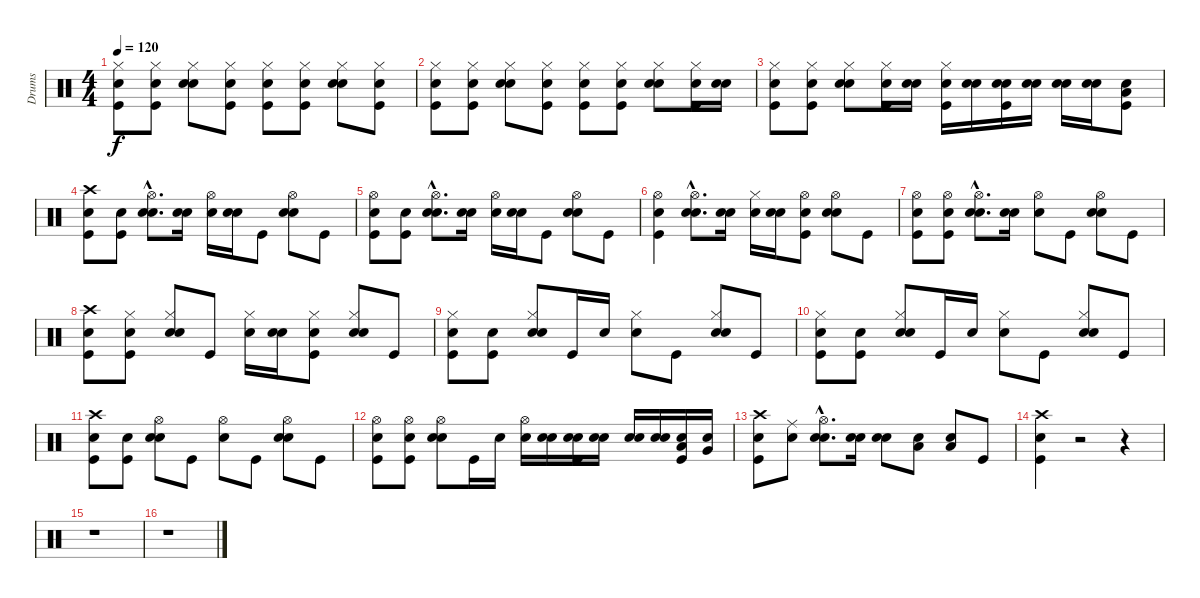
\track ("Drums" "Drums") {instrument percussion}
\staff {score}
\articulation defaults
\ts (4 4)
\tempo 120
\clef neutral
\ks c
("Snare (hit)" "Kick (hit)" "Hi-Hat (closed)").8{dy f} ("Snare (hit)" "Kick (hit)" "Hi-Hat (closed)").8 ("Snare (hit)" "Electric Snare (hit)" "Hi-Hat (closed)").8 ("Snare (hit)" "Kick (hit)" "Hi-Hat (closed)").8 ("Snare (hit)" "Kick (hit)" "Hi-Hat (closed)").8 ("Snare (hit)" "Kick (hit)" "Hi-Hat (closed)").8 ("Snare (hit)" "Electric Snare (hit)" "Hi-Hat (closed)").8 ("Snare (hit)" "Kick (hit)" "Hi-Hat (closed)").8 |
("Snare (hit)" "Kick (hit)" "Hi-Hat (closed)").8 ("Snare (hit)" "Kick (hit)" "Hi-Hat (closed)").8 ("Snare (hit)" "Electric Snare (hit)" "Hi-Hat (closed)").8 ("Snare (hit)" "Kick (hit)" "Hi-Hat (closed)").8 ("Snare (hit)" "Kick (hit)" "Hi-Hat (closed)").8 ("Snare (hit)" "Kick (hit)" "Hi-Hat (closed)").8 ("Snare (hit)" "Electric Snare (hit)" "Hi-Hat (closed)").8 ("Snare (hit)" "Kick (hit)" "Hi-Hat (closed)").16 ("Snare (hit)" "Electric Snare (hit)").16 |
("Snare (hit)" "Kick (hit)" "Hi-Hat (closed)").8 ("Snare (hit)" "Kick (hit)" "Hi-Hat (closed)").8 ("Snare (hit)" "Electric Snare (hit)" "Hi-Hat (closed)").8 ("Snare (hit)" "Kick (hit)" "Hi-Hat (closed)").16 ("Snare (hit)" "Electric Snare (hit)").16 ("Snare (hit)" "Kick (hit)" "Hi-Hat (closed)").16 ("Snare (hit)" "Electric Snare (hit)").16 ("Snare (hit)" "Kick (hit)" "Electric Snare (hit)").16 ("Snare (hit)" "Electric Snare (hit)").16 ("Snare (hit)" "Electric Snare (hit)").16 ("Snare (hit)" "Electric Snare (hit)").16 ("Snare (hit)" "Kick (hit)" "Low Tom (hit)").8 |
("Snare (hit)" "Kick (hit)" "Crash high (hit)").8 ("Snare (hit)" "Kick (hit)").8 ("Snare (hit)"{hac} "Electric Snare (hit)"{hac} "Hi-Hat (open)"{hac}).8{d} ("Snare (hit)" "Electric Snare (hit)").16 ("Snare (hit)" "Hi-Hat (open)").16 ("Snare (hit)" "Electric Snare (hit)").16 "Kick (hit)".8 ("Snare (hit)" "Electric Snare (hit)" "Hi-Hat (open)").8 "Kick (hit)".8 |
("Snare (hit)" "Hi-Hat (open)" "Kick (hit)").8 ("Snare (hit)" "Kick (hit)").8 ("Snare (hit)"{hac} "Electric Snare (hit)"{hac} "Hi-Hat (open)"{hac}).8{d} ("Snare (hit)" "Electric Snare (hit)").16 ("Snare (hit)" "Hi-Hat (open)").16 ("Snare (hit)" "Electric Snare (hit)").16 "Kick (hit)".8 ("Snare (hit)" "Electric Snare (hit)" "Hi-Hat (open)").8 "Kick (hit)".8 |
("Snare (hit)" "Hi-Hat (open)" "Kick (hit)").4 ("Snare (hit)"{hac} "Electric Snare (hit)"{hac} "Hi-Hat (open)"{hac}).8{d} ("Snare (hit)" "Electric Snare (hit)").16 ("Snare (hit)" "Hi-Hat (closed)").16 ("Snare (hit)" "Electric Snare (hit)").16 ("Snare (hit)" "Hi-Hat (open)" "Kick (hit)").8 ("Snare (hit)" "Electric Snare (hit)" "Hi-Hat (open)").8 "Kick (hit)".8 |
("Snare (hit)" "Hi-Hat (open)" "Kick (hit)").8 ("Snare (hit)" "Hi-Hat (open)" "Kick (hit)").8 ("Snare (hit)"{hac} "Electric Snare (hit)"{hac} "Hi-Hat (open)"{hac}).8{d} ("Snare (hit)" "Electric Snare (hit)").16 ("Snare (hit)" "Hi-Hat (open)").8 "Kick (hit)".8 ("Snare (hit)" "Electric Snare (hit)" "Hi-Hat (open)").8 "Kick (hit)".8 |
("Snare (hit)" "Crash high (hit)" "Kick (hit)").8 ("Snare (hit)" "Hi-Hat (closed)" "Kick (hit)").8 ("Snare (hit)" "Electric Snare (hit)" "Hi-Hat (closed)").8 "Kick (hit)".8 ("Snare (hit)" "Hi-Hat (closed)").16 ("Snare (hit)" "Electric Snare (hit)").16 ("Snare (hit)" "Hi-Hat (closed)" "Kick (hit)").8 ("Snare (hit)" "Electric Snare (hit)" "Hi-Hat (closed)").8 "Kick (hit)".8 |
("Snare (hit)" "Hi-Hat (closed)" "Kick (hit)").8 ("Snare (hit)" "Kick (hit)").8 ("Snare (hit)" "Electric Snare (hit)" "Hi-Hat (closed)").8 "Kick (hit)".16 "Electric Snare (hit)".16 ("Snare (hit)" "Hi-Hat (closed)").8 "Kick (hit)".8 ("Snare (hit)" "Electric Snare (hit)" "Hi-Hat (closed)").8 "Kick (hit)".8 |
("Snare (hit)" "Hi-Hat (closed)" "Kick (hit)").8 ("Snare (hit)" "Kick (hit)").8 ("Snare (hit)" "Electric Snare (hit)" "Hi-Hat (closed)").8 "Kick (hit)".16 "Electric Snare (hit)".16 ("Snare (hit)" "Hi-Hat (closed)").8 "Kick (hit)".8 ("Snare (hit)" "Electric Snare (hit)" "Hi-Hat (closed)").8 "Kick (hit)".8 |
("Snare (hit)" "Crash high (hit)" "Kick (hit)").8 ("Snare (hit)" "Kick (hit)").8 ("Snare (hit)" "Electric Snare (hit)" "Hi-Hat (open)").8 "Kick (hit)".8 ("Snare (hit)" "Hi-Hat (open)").8 "Kick (hit)".8 ("Snare (hit)" "Electric Snare (hit)" "Hi-Hat (open)").8 "Kick (hit)".8 |
("Snare (hit)" "Hi-Hat (open)" "Kick (hit)").8 ("Snare (hit)" "Hi-Hat (open)" "Kick (hit)").8 ("Snare (hit)" "Electric Snare (hit)" "Hi-Hat (open)").8 "Kick (hit)".16 "Electric Snare (hit)".16 ("Snare (hit)" "Hi-Hat (open)").16 ("Snare (hit)" "Electric Snare (hit)").16 ("Snare (hit)" "Electric Snare (hit)" "Kick (hit)").16 ("Snare (hit)" "Electric Snare (hit)").16 ("Snare (hit)" "Electric Snare (hit)").16 ("Snare (hit)" "Electric Snare (hit)").16 ("Snare (hit)" "Low Tom (hit)" "Kick (hit)").16 ("Snare (hit)" "Very Low Tom (hit)").16 |
("Snare (hit)" "Kick (hit)" "Crash high (hit)").8 ("Snare (hit)" "Ride (middle)").8 ("Snare (hit)"{hac} "Electric Snare (hit)"{hac} "Hi-Hat (open)"{hac}).8{d} ("Snare (hit)" "Electric Snare (hit)").16 ("Snare (hit)" "Electric Snare (hit)").8 ("Snare (hit)" "Low Tom (hit)").8 ("Snare (hit)" "Low Tom (hit)").8 "Kick (hit)".8 |
("Snare (hit)" "Kick (hit)" "Crash high (hit)").4 r.2 r.4 |
r.1 |
r.1
